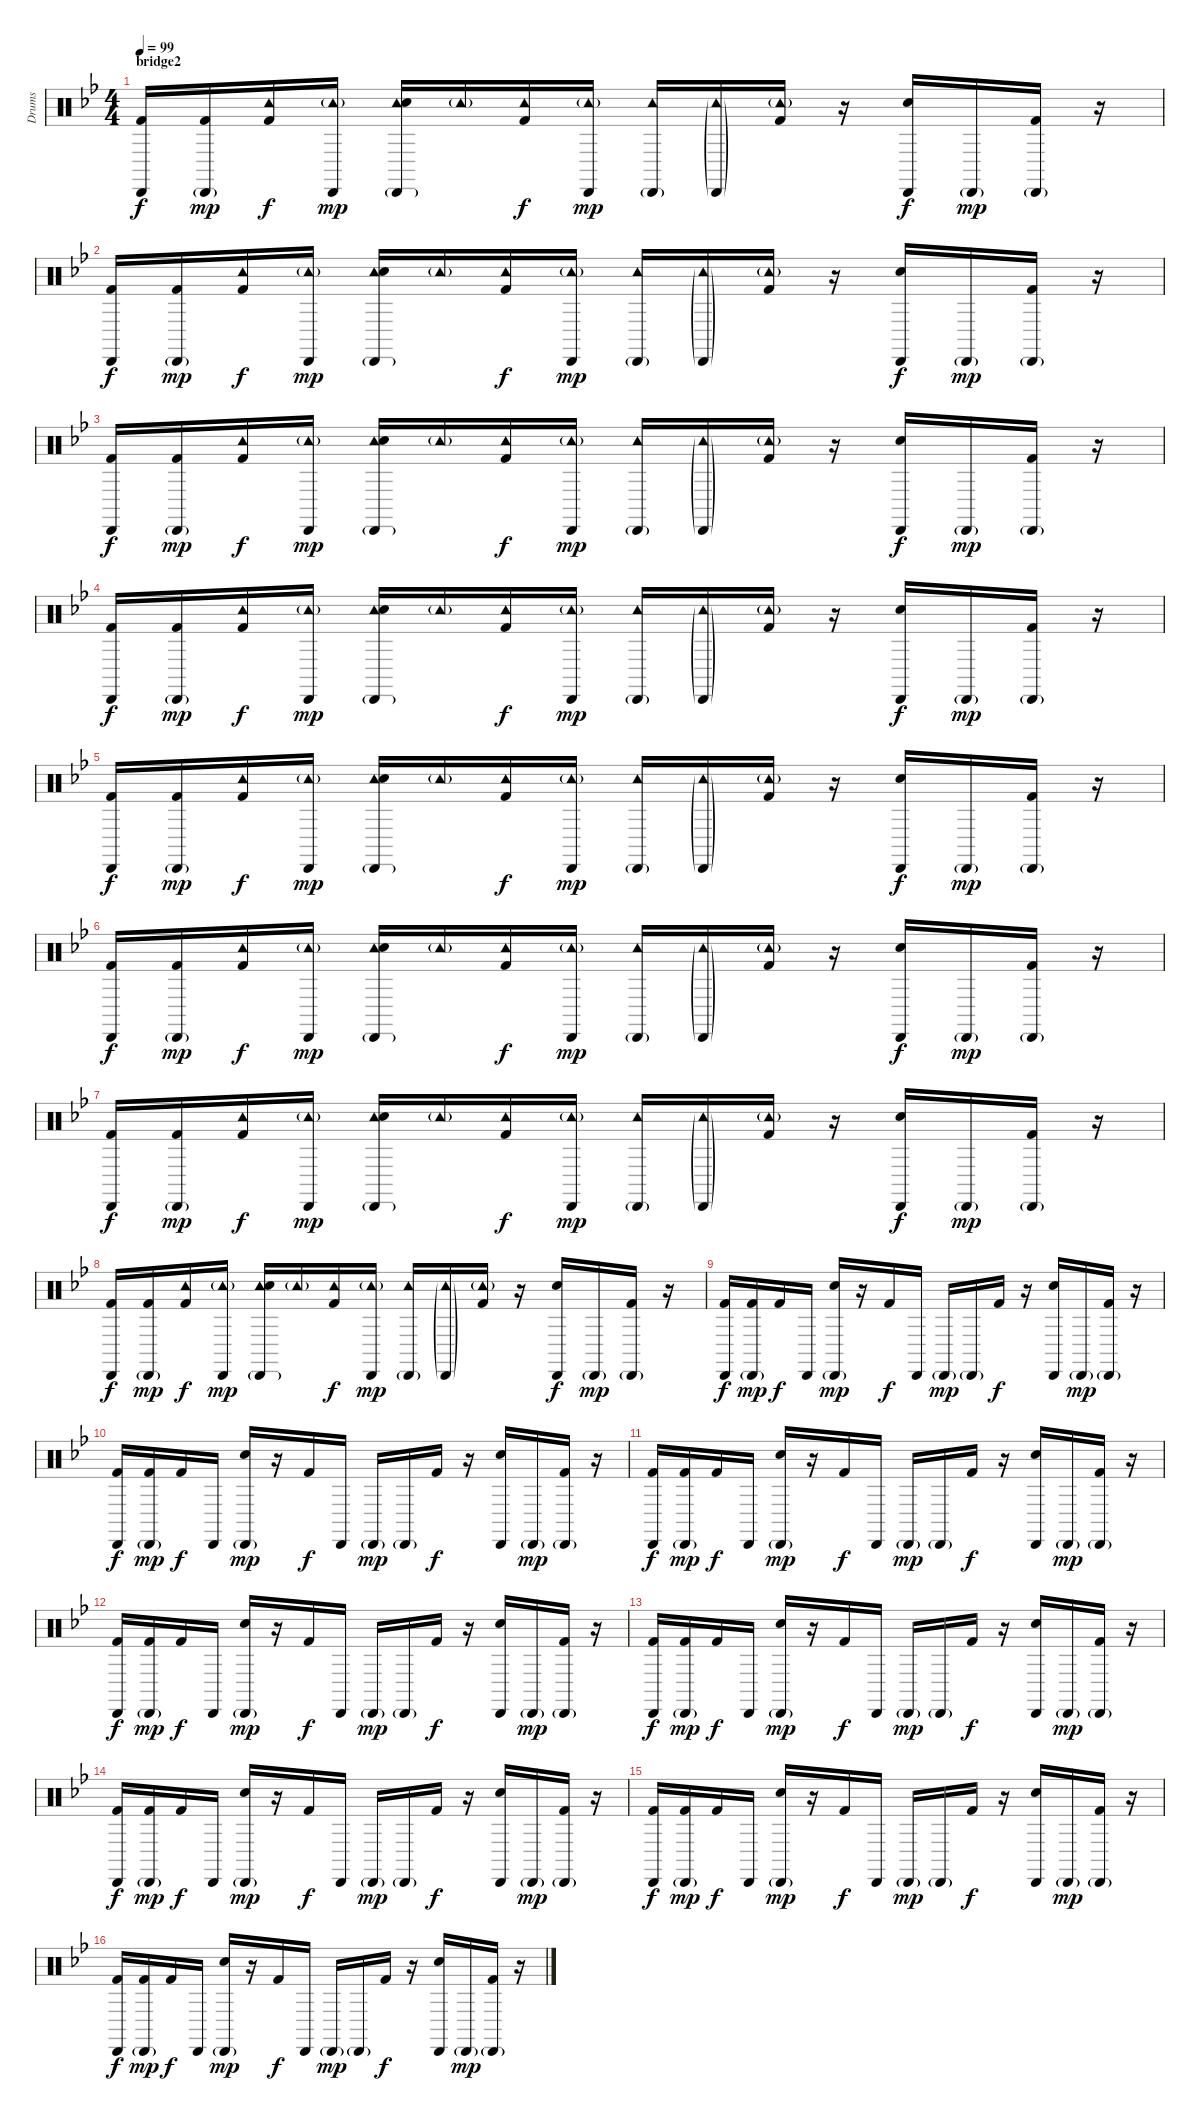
\track ("Drums" "Drums") {instrument percussion}
\staff {score}
\articulation defaults
\ts (4 4)
\section ("" "bridge2")
\tempo 99
\clef neutral
\ks bb
("Cabasa (hit)" "Kick (hit) 2").16{dy f} ("Cabasa (hit)"{g} "Kick (hit) 2").16{dy mp} ("Tambourine (hit)" "Kick (hit) 2").16{dy f} ("Cabasa (hit)" "Tambourine (hit)"{g}).16{dy mp} ("Cabasa (hit)"{g} "Tambourine (hit)" "Snare (hit) 2").16 "Tambourine (hit)"{g}.16 ("Tambourine (hit)" "Kick (hit) 2").16{dy f} ("Cabasa (hit)" "Tambourine (hit)"{g}).16{dy mp} ("Cabasa (hit)"{g} "Tambourine (hit)").16 ("Cabasa (hit)"{g} "Tambourine (hit)"{g}).16 ("Tambourine (hit)"{g} "Kick (hit) 2").16 r.16 ("Cabasa (hit)" "Snare (hit) 2").16{dy f} "Cabasa (hit)"{g}.16{dy mp} ("Cabasa (hit)"{g} "Kick (hit) 2").16 r.16 |
("Cabasa (hit)" "Kick (hit) 2").16{dy f} ("Cabasa (hit)"{g} "Kick (hit) 2").16{dy mp} ("Tambourine (hit)" "Kick (hit) 2").16{dy f} ("Cabasa (hit)" "Tambourine (hit)"{g}).16{dy mp} ("Cabasa (hit)"{g} "Tambourine (hit)" "Snare (hit) 2").16 "Tambourine (hit)"{g}.16 ("Tambourine (hit)" "Kick (hit) 2").16{dy f} ("Cabasa (hit)" "Tambourine (hit)"{g}).16{dy mp} ("Cabasa (hit)"{g} "Tambourine (hit)").16 ("Cabasa (hit)"{g} "Tambourine (hit)"{g}).16 ("Tambourine (hit)"{g} "Kick (hit) 2").16 r.16 ("Cabasa (hit)" "Snare (hit) 2").16{dy f} "Cabasa (hit)"{g}.16{dy mp} ("Cabasa (hit)"{g} "Kick (hit) 2").16 r.16 |
("Cabasa (hit)" "Kick (hit) 2").16{dy f} ("Cabasa (hit)"{g} "Kick (hit) 2").16{dy mp} ("Tambourine (hit)" "Kick (hit) 2").16{dy f} ("Cabasa (hit)" "Tambourine (hit)"{g}).16{dy mp} ("Cabasa (hit)"{g} "Tambourine (hit)" "Snare (hit) 2").16 "Tambourine (hit)"{g}.16 ("Tambourine (hit)" "Kick (hit) 2").16{dy f} ("Cabasa (hit)" "Tambourine (hit)"{g}).16{dy mp} ("Cabasa (hit)"{g} "Tambourine (hit)").16 ("Cabasa (hit)"{g} "Tambourine (hit)"{g}).16 ("Tambourine (hit)"{g} "Kick (hit) 2").16 r.16 ("Cabasa (hit)" "Snare (hit) 2").16{dy f} "Cabasa (hit)"{g}.16{dy mp} ("Cabasa (hit)"{g} "Kick (hit) 2").16 r.16 |
("Cabasa (hit)" "Kick (hit) 2").16{dy f} ("Cabasa (hit)"{g} "Kick (hit) 2").16{dy mp} ("Tambourine (hit)" "Kick (hit) 2").16{dy f} ("Cabasa (hit)" "Tambourine (hit)"{g}).16{dy mp} ("Cabasa (hit)"{g} "Tambourine (hit)" "Snare (hit) 2").16 "Tambourine (hit)"{g}.16 ("Tambourine (hit)" "Kick (hit) 2").16{dy f} ("Cabasa (hit)" "Tambourine (hit)"{g}).16{dy mp} ("Cabasa (hit)"{g} "Tambourine (hit)").16 ("Cabasa (hit)"{g} "Tambourine (hit)"{g}).16 ("Tambourine (hit)"{g} "Kick (hit) 2").16 r.16 ("Cabasa (hit)" "Snare (hit) 2").16{dy f} "Cabasa (hit)"{g}.16{dy mp} ("Cabasa (hit)"{g} "Kick (hit) 2").16 r.16 |
("Cabasa (hit)" "Kick (hit) 2").16{dy f} ("Cabasa (hit)"{g} "Kick (hit) 2").16{dy mp} ("Tambourine (hit)" "Kick (hit) 2").16{dy f} ("Cabasa (hit)" "Tambourine (hit)"{g}).16{dy mp} ("Cabasa (hit)"{g} "Tambourine (hit)" "Snare (hit) 2").16 "Tambourine (hit)"{g}.16 ("Tambourine (hit)" "Kick (hit) 2").16{dy f} ("Cabasa (hit)" "Tambourine (hit)"{g}).16{dy mp} ("Cabasa (hit)"{g} "Tambourine (hit)").16 ("Cabasa (hit)"{g} "Tambourine (hit)"{g}).16 ("Tambourine (hit)"{g} "Kick (hit) 2").16 r.16 ("Cabasa (hit)" "Snare (hit) 2").16{dy f} "Cabasa (hit)"{g}.16{dy mp} ("Cabasa (hit)"{g} "Kick (hit) 2").16 r.16 |
("Cabasa (hit)" "Kick (hit) 2").16{dy f} ("Cabasa (hit)"{g} "Kick (hit) 2").16{dy mp} ("Tambourine (hit)" "Kick (hit) 2").16{dy f} ("Cabasa (hit)" "Tambourine (hit)"{g}).16{dy mp} ("Cabasa (hit)"{g} "Tambourine (hit)" "Snare (hit) 2").16 "Tambourine (hit)"{g}.16 ("Tambourine (hit)" "Kick (hit) 2").16{dy f} ("Cabasa (hit)" "Tambourine (hit)"{g}).16{dy mp} ("Cabasa (hit)"{g} "Tambourine (hit)").16 ("Cabasa (hit)"{g} "Tambourine (hit)"{g}).16 ("Tambourine (hit)"{g} "Kick (hit) 2").16 r.16 ("Cabasa (hit)" "Snare (hit) 2").16{dy f} "Cabasa (hit)"{g}.16{dy mp} ("Cabasa (hit)"{g} "Kick (hit) 2").16 r.16 |
("Cabasa (hit)" "Kick (hit) 2").16{dy f} ("Cabasa (hit)"{g} "Kick (hit) 2").16{dy mp} ("Tambourine (hit)" "Kick (hit) 2").16{dy f} ("Cabasa (hit)" "Tambourine (hit)"{g}).16{dy mp} ("Cabasa (hit)"{g} "Tambourine (hit)" "Snare (hit) 2").16 "Tambourine (hit)"{g}.16 ("Tambourine (hit)" "Kick (hit) 2").16{dy f} ("Cabasa (hit)" "Tambourine (hit)"{g}).16{dy mp} ("Cabasa (hit)"{g} "Tambourine (hit)").16 ("Cabasa (hit)"{g} "Tambourine (hit)"{g}).16 ("Tambourine (hit)"{g} "Kick (hit) 2").16 r.16 ("Cabasa (hit)" "Snare (hit) 2").16{dy f} "Cabasa (hit)"{g}.16{dy mp} ("Cabasa (hit)"{g} "Kick (hit) 2").16 r.16 |
("Cabasa (hit)" "Kick (hit) 2").16{dy f} ("Cabasa (hit)"{g} "Kick (hit) 2").16{dy mp} ("Tambourine (hit)" "Kick (hit) 2").16{dy f} ("Cabasa (hit)" "Tambourine (hit)"{g}).16{dy mp} ("Cabasa (hit)"{g} "Tambourine (hit)" "Snare (hit) 2").16 "Tambourine (hit)"{g}.16 ("Tambourine (hit)" "Kick (hit) 2").16{dy f} ("Cabasa (hit)" "Tambourine (hit)"{g}).16{dy mp} ("Cabasa (hit)"{g} "Tambourine (hit)").16 ("Cabasa (hit)"{g} "Tambourine (hit)"{g}).16 ("Tambourine (hit)"{g} "Kick (hit) 2").16 r.16 ("Cabasa (hit)" "Snare (hit) 2").16{dy f} "Cabasa (hit)"{g}.16{dy mp} ("Cabasa (hit)"{g} "Kick (hit) 2").16 r.16 |
("Cabasa (hit)" "Kick (hit) 2").16{dy f} ("Cabasa (hit)"{g} "Kick (hit) 2").16{dy mp} "Kick (hit) 2".16{dy f} "Cabasa (hit)".16 ("Cabasa (hit)"{g} "Snare (hit) 2").16{dy mp} r.16 "Kick (hit) 2".16{dy f} "Cabasa (hit)".16 "Cabasa (hit)"{g}.16{dy mp} "Cabasa (hit)"{g}.16 "Kick (hit) 2".16{dy f} r.16 ("Cabasa (hit)" "Snare (hit) 2").16 "Cabasa (hit)"{g}.16{dy mp} ("Cabasa (hit)"{g} "Kick (hit) 2").16 r.16 |
("Cabasa (hit)" "Kick (hit) 2").16{dy f} ("Cabasa (hit)"{g} "Kick (hit) 2").16{dy mp} "Kick (hit) 2".16{dy f} "Cabasa (hit)".16 ("Cabasa (hit)"{g} "Snare (hit) 2").16{dy mp} r.16 "Kick (hit) 2".16{dy f} "Cabasa (hit)".16 "Cabasa (hit)"{g}.16{dy mp} "Cabasa (hit)"{g}.16 "Kick (hit) 2".16{dy f} r.16 ("Cabasa (hit)" "Snare (hit) 2").16 "Cabasa (hit)"{g}.16{dy mp} ("Cabasa (hit)"{g} "Kick (hit) 2").16 r.16 |
("Cabasa (hit)" "Kick (hit) 2").16{dy f} ("Cabasa (hit)"{g} "Kick (hit) 2").16{dy mp} "Kick (hit) 2".16{dy f} "Cabasa (hit)".16 ("Cabasa (hit)"{g} "Snare (hit) 2").16{dy mp} r.16 "Kick (hit) 2".16{dy f} "Cabasa (hit)".16 "Cabasa (hit)"{g}.16{dy mp} "Cabasa (hit)"{g}.16 "Kick (hit) 2".16{dy f} r.16 ("Cabasa (hit)" "Snare (hit) 2").16 "Cabasa (hit)"{g}.16{dy mp} ("Cabasa (hit)"{g} "Kick (hit) 2").16 r.16 |
("Cabasa (hit)" "Kick (hit) 2").16{dy f} ("Cabasa (hit)"{g} "Kick (hit) 2").16{dy mp} "Kick (hit) 2".16{dy f} "Cabasa (hit)".16 ("Cabasa (hit)"{g} "Snare (hit) 2").16{dy mp} r.16 "Kick (hit) 2".16{dy f} "Cabasa (hit)".16 "Cabasa (hit)"{g}.16{dy mp} "Cabasa (hit)"{g}.16 "Kick (hit) 2".16{dy f} r.16 ("Cabasa (hit)" "Snare (hit) 2").16 "Cabasa (hit)"{g}.16{dy mp} ("Cabasa (hit)"{g} "Kick (hit) 2").16 r.16 |
("Cabasa (hit)" "Kick (hit) 2").16{dy f} ("Cabasa (hit)"{g} "Kick (hit) 2").16{dy mp} "Kick (hit) 2".16{dy f} "Cabasa (hit)".16 ("Cabasa (hit)"{g} "Snare (hit) 2").16{dy mp} r.16 "Kick (hit) 2".16{dy f} "Cabasa (hit)".16 "Cabasa (hit)"{g}.16{dy mp} "Cabasa (hit)"{g}.16 "Kick (hit) 2".16{dy f} r.16 ("Cabasa (hit)" "Snare (hit) 2").16 "Cabasa (hit)"{g}.16{dy mp} ("Cabasa (hit)"{g} "Kick (hit) 2").16 r.16 |
("Cabasa (hit)" "Kick (hit) 2").16{dy f} ("Cabasa (hit)"{g} "Kick (hit) 2").16{dy mp} "Kick (hit) 2".16{dy f} "Cabasa (hit)".16 ("Cabasa (hit)"{g} "Snare (hit) 2").16{dy mp} r.16 "Kick (hit) 2".16{dy f} "Cabasa (hit)".16 "Cabasa (hit)"{g}.16{dy mp} "Cabasa (hit)"{g}.16 "Kick (hit) 2".16{dy f} r.16 ("Cabasa (hit)" "Snare (hit) 2").16 "Cabasa (hit)"{g}.16{dy mp} ("Cabasa (hit)"{g} "Kick (hit) 2").16 r.16 |
("Cabasa (hit)" "Kick (hit) 2").16{dy f} ("Cabasa (hit)"{g} "Kick (hit) 2").16{dy mp} "Kick (hit) 2".16{dy f} "Cabasa (hit)".16 ("Cabasa (hit)"{g} "Snare (hit) 2").16{dy mp} r.16 "Kick (hit) 2".16{dy f} "Cabasa (hit)".16 "Cabasa (hit)"{g}.16{dy mp} "Cabasa (hit)"{g}.16 "Kick (hit) 2".16{dy f} r.16 ("Cabasa (hit)" "Snare (hit) 2").16 "Cabasa (hit)"{g}.16{dy mp} ("Cabasa (hit)"{g} "Kick (hit) 2").16 r.16 |
("Cabasa (hit)" "Kick (hit) 2").16{dy f} ("Cabasa (hit)"{g} "Kick (hit) 2").16{dy mp} "Kick (hit) 2".16{dy f} "Cabasa (hit)".16 ("Cabasa (hit)"{g} "Snare (hit) 2").16{dy mp} r.16 "Kick (hit) 2".16{dy f} "Cabasa (hit)".16 "Cabasa (hit)"{g}.16{dy mp} "Cabasa (hit)"{g}.16 "Kick (hit) 2".16{dy f} r.16 ("Cabasa (hit)" "Snare (hit) 2").16 "Cabasa (hit)"{g}.16{dy mp} ("Cabasa (hit)"{g} "Kick (hit) 2").16 r.16
